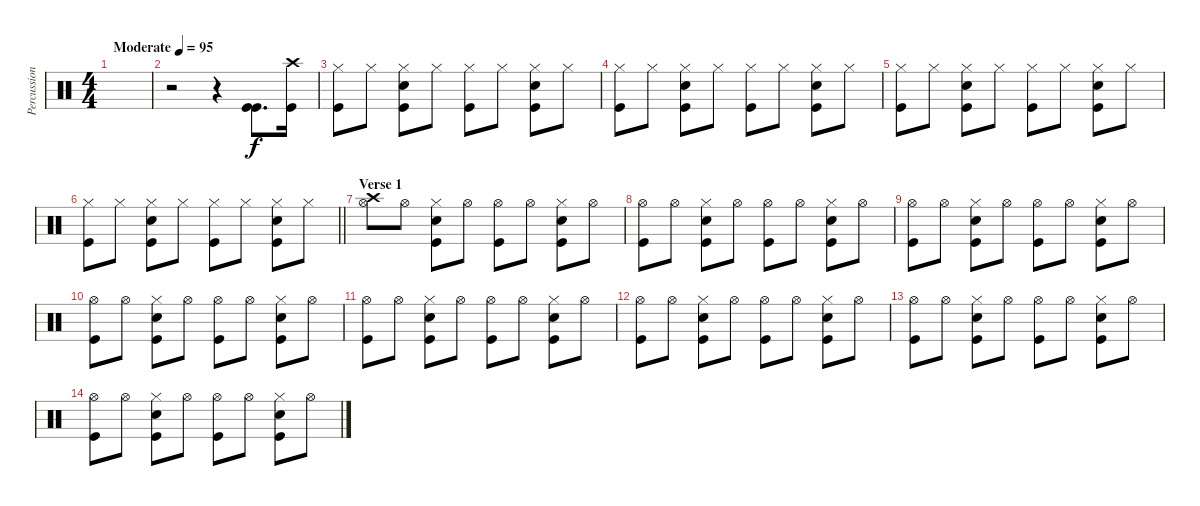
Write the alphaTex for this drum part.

\track ("Percussion" "Percussion") {instrument percussion}
\staff {score}
\articulation defaults
\ts (4 4)
\tempo (95 "Moderate")
\clef neutral
\ks c
|
r.2 r.4 ("Kick (hit)" "Kick (hit)").8{d} ("Kick (hit)" "Crash high (hit)").16 |
("Hi-Hat (closed)" "Kick (hit)").8 "Hi-Hat (closed)".8 ("Hi-Hat (closed)" "Kick (hit)" "Snare (hit) 2").8 "Hi-Hat (closed)".8 ("Hi-Hat (closed)" "Kick (hit)").8 "Hi-Hat (closed)".8 ("Hi-Hat (closed)" "Kick (hit)" "Snare (hit) 2").8 "Hi-Hat (closed)".8 |
("Hi-Hat (closed)" "Kick (hit)").8 "Hi-Hat (closed)".8 ("Hi-Hat (closed)" "Kick (hit)" "Snare (hit) 2").8 "Hi-Hat (closed)".8 ("Hi-Hat (closed)" "Kick (hit)").8 "Hi-Hat (closed)".8 ("Hi-Hat (closed)" "Kick (hit)" "Snare (hit) 2").8 "Hi-Hat (closed)".8 |
("Hi-Hat (closed)" "Kick (hit)").8 "Hi-Hat (closed)".8 ("Hi-Hat (closed)" "Kick (hit)" "Snare (hit) 2").8 "Hi-Hat (closed)".8 ("Hi-Hat (closed)" "Kick (hit)").8 "Hi-Hat (closed)".8 ("Hi-Hat (closed)" "Kick (hit)" "Snare (hit) 2").8 "Hi-Hat (closed)".8 |
\barLineRight lightlight
("Hi-Hat (closed)" "Kick (hit)").8 "Hi-Hat (closed)".8 ("Hi-Hat (closed)" "Kick (hit)" "Snare (hit) 2").8 "Hi-Hat (closed)".8 ("Hi-Hat (closed)" "Kick (hit)").8 "Hi-Hat (closed)".8 ("Hi-Hat (closed)" "Kick (hit)" "Snare (hit) 2").8 "Hi-Hat (closed)".8 |
\section ("" "Verse 1")
("Crash high (hit)" "Hi-Hat (open)").8 "Hi-Hat (open)".8 ("Hi-Hat (closed)" "Kick (hit)" "Snare (hit) 2").8 "Hi-Hat (open)".8 ("Hi-Hat (open)" "Kick (hit)").8 "Hi-Hat (open)".8 ("Hi-Hat (closed)" "Kick (hit)" "Snare (hit) 2").8 "Hi-Hat (open)".8 |
("Hi-Hat (open)" "Kick (hit)").8 "Hi-Hat (open)".8 ("Hi-Hat (closed)" "Kick (hit)" "Snare (hit) 2").8 "Hi-Hat (open)".8 ("Hi-Hat (open)" "Kick (hit)").8 "Hi-Hat (open)".8 ("Hi-Hat (closed)" "Kick (hit)" "Snare (hit) 2").8 "Hi-Hat (open)".8 |
("Hi-Hat (open)" "Kick (hit)").8 "Hi-Hat (open)".8 ("Hi-Hat (closed)" "Kick (hit)" "Snare (hit) 2").8 "Hi-Hat (open)".8 ("Hi-Hat (open)" "Kick (hit)").8 "Hi-Hat (open)".8 ("Hi-Hat (closed)" "Kick (hit)" "Snare (hit) 2").8 "Hi-Hat (open)".8 |
("Hi-Hat (open)" "Kick (hit)").8 "Hi-Hat (open)".8 ("Hi-Hat (closed)" "Kick (hit)" "Snare (hit) 2").8 "Hi-Hat (open)".8 ("Hi-Hat (open)" "Kick (hit)").8 "Hi-Hat (open)".8 ("Hi-Hat (closed)" "Kick (hit)" "Snare (hit) 2").8 "Hi-Hat (open)".8 |
("Hi-Hat (open)" "Kick (hit)").8 "Hi-Hat (open)".8 ("Hi-Hat (closed)" "Kick (hit)" "Snare (hit) 2").8 "Hi-Hat (open)".8 ("Hi-Hat (open)" "Kick (hit)").8 "Hi-Hat (open)".8 ("Hi-Hat (closed)" "Kick (hit)" "Snare (hit) 2").8 "Hi-Hat (open)".8 |
("Hi-Hat (open)" "Kick (hit)").8 "Hi-Hat (open)".8 ("Hi-Hat (closed)" "Kick (hit)" "Snare (hit) 2").8 "Hi-Hat (open)".8 ("Hi-Hat (open)" "Kick (hit)").8 "Hi-Hat (open)".8 ("Hi-Hat (closed)" "Kick (hit)" "Snare (hit) 2").8 "Hi-Hat (open)".8 |
("Hi-Hat (open)" "Kick (hit)").8 "Hi-Hat (open)".8 ("Hi-Hat (closed)" "Kick (hit)" "Snare (hit) 2").8 "Hi-Hat (open)".8 ("Hi-Hat (open)" "Kick (hit)").8 "Hi-Hat (open)".8 ("Hi-Hat (closed)" "Kick (hit)" "Snare (hit) 2").8 "Hi-Hat (open)".8 |
("Hi-Hat (open)" "Kick (hit)").8 "Hi-Hat (open)".8 ("Hi-Hat (closed)" "Kick (hit)" "Snare (hit) 2").8 "Hi-Hat (open)".8 ("Hi-Hat (open)" "Kick (hit)").8 "Hi-Hat (open)".8 ("Hi-Hat (closed)" "Kick (hit)" "Snare (hit) 2").8 "Hi-Hat (open)".8
